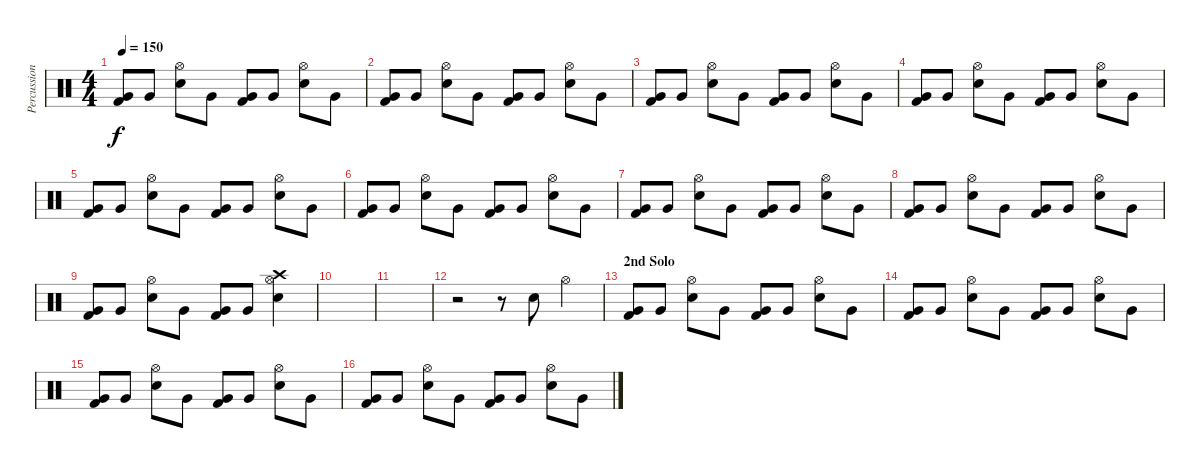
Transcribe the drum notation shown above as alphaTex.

\track ("Percussion" "Percussion") {instrument percussion}
\staff {score}
\articulation defaults
\ts (4 4)
\tempo 150
\clef neutral
\ks c
("Very Low Tom (hit)" "Kick (hit) 2").8{dy f} "Very Low Tom (hit)".8 ("Hi-Hat (open)" "Snare (hit) 2").8 "Very Low Tom (hit)".8 ("Very Low Tom (hit)" "Kick (hit) 2").8 "Very Low Tom (hit)".8 ("Hi-Hat (open)" "Snare (hit) 2").8 "Very Low Tom (hit)".8 |
("Very Low Tom (hit)" "Kick (hit) 2").8 "Very Low Tom (hit)".8 ("Hi-Hat (open)" "Snare (hit) 2").8 "Very Low Tom (hit)".8 ("Very Low Tom (hit)" "Kick (hit) 2").8 "Very Low Tom (hit)".8 ("Hi-Hat (open)" "Snare (hit) 2").8 "Very Low Tom (hit)".8 |
("Very Low Tom (hit)" "Kick (hit) 2").8 "Very Low Tom (hit)".8 ("Hi-Hat (open)" "Snare (hit) 2").8 "Very Low Tom (hit)".8 ("Very Low Tom (hit)" "Kick (hit) 2").8 "Very Low Tom (hit)".8 ("Hi-Hat (open)" "Snare (hit) 2").8 "Very Low Tom (hit)".8 |
("Very Low Tom (hit)" "Kick (hit) 2").8 "Very Low Tom (hit)".8 ("Hi-Hat (open)" "Snare (hit) 2").8 "Very Low Tom (hit)".8 ("Very Low Tom (hit)" "Kick (hit) 2").8 "Very Low Tom (hit)".8 ("Hi-Hat (open)" "Snare (hit) 2").8 "Very Low Tom (hit)".8 |
("Very Low Tom (hit)" "Kick (hit) 2").8 "Very Low Tom (hit)".8 ("Hi-Hat (open)" "Snare (hit) 2").8 "Very Low Tom (hit)".8 ("Very Low Tom (hit)" "Kick (hit) 2").8 "Very Low Tom (hit)".8 ("Hi-Hat (open)" "Snare (hit) 2").8 "Very Low Tom (hit)".8 |
("Very Low Tom (hit)" "Kick (hit) 2").8 "Very Low Tom (hit)".8 ("Hi-Hat (open)" "Snare (hit) 2").8 "Very Low Tom (hit)".8 ("Very Low Tom (hit)" "Kick (hit) 2").8 "Very Low Tom (hit)".8 ("Hi-Hat (open)" "Snare (hit) 2").8 "Very Low Tom (hit)".8 |
("Very Low Tom (hit)" "Kick (hit) 2").8 "Very Low Tom (hit)".8 ("Hi-Hat (open)" "Snare (hit) 2").8 "Very Low Tom (hit)".8 ("Very Low Tom (hit)" "Kick (hit) 2").8 "Very Low Tom (hit)".8 ("Hi-Hat (open)" "Snare (hit) 2").8 "Very Low Tom (hit)".8 |
("Very Low Tom (hit)" "Kick (hit) 2").8 "Very Low Tom (hit)".8 ("Hi-Hat (open)" "Snare (hit) 2").8 "Very Low Tom (hit)".8 ("Very Low Tom (hit)" "Kick (hit) 2").8 "Very Low Tom (hit)".8 ("Hi-Hat (open)" "Snare (hit) 2").8 "Very Low Tom (hit)".8 |
("Very Low Tom (hit)" "Kick (hit) 2").8 "Very Low Tom (hit)".8 ("Hi-Hat (open)" "Snare (hit) 2").8 "Very Low Tom (hit)".8 ("Very Low Tom (hit)" "Kick (hit) 2").8 "Very Low Tom (hit)".8 ("Crash high (hit)" "Hi-Hat (open)" "Snare (hit) 2").4 |
|
|
r.2 r.8 "Snare (hit) 2".8 "Hi-Hat (open)".4 |
\section ("" "2nd Solo")
("Very Low Tom (hit)" "Kick (hit) 2").8 "Very Low Tom (hit)".8 ("Hi-Hat (open)" "Snare (hit) 2").8 "Very Low Tom (hit)".8 ("Very Low Tom (hit)" "Kick (hit) 2").8 "Very Low Tom (hit)".8 ("Hi-Hat (open)" "Snare (hit) 2").8 "Very Low Tom (hit)".8 |
("Very Low Tom (hit)" "Kick (hit) 2").8 "Very Low Tom (hit)".8 ("Hi-Hat (open)" "Snare (hit) 2").8 "Very Low Tom (hit)".8 ("Very Low Tom (hit)" "Kick (hit) 2").8 "Very Low Tom (hit)".8 ("Hi-Hat (open)" "Snare (hit) 2").8 "Very Low Tom (hit)".8 |
("Very Low Tom (hit)" "Kick (hit) 2").8 "Very Low Tom (hit)".8 ("Hi-Hat (open)" "Snare (hit) 2").8 "Very Low Tom (hit)".8 ("Very Low Tom (hit)" "Kick (hit) 2").8 "Very Low Tom (hit)".8 ("Hi-Hat (open)" "Snare (hit) 2").8 "Very Low Tom (hit)".8 |
("Very Low Tom (hit)" "Kick (hit) 2").8 "Very Low Tom (hit)".8 ("Hi-Hat (open)" "Snare (hit) 2").8 "Very Low Tom (hit)".8 ("Very Low Tom (hit)" "Kick (hit) 2").8 "Very Low Tom (hit)".8 ("Hi-Hat (open)" "Snare (hit) 2").8 "Very Low Tom (hit)".8
